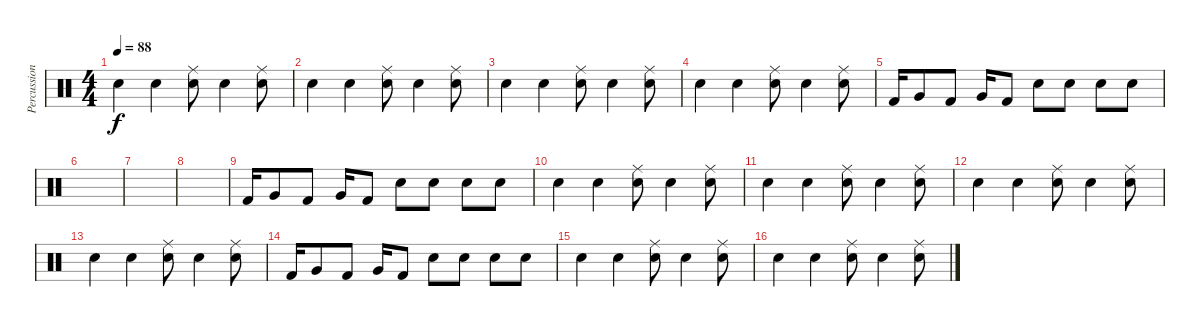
\track ("Percussions" "Percussion") {instrument percussion}
\staff {score}
\articulation defaults
\ts (4 4)
\tempo 88
\clef neutral
\ks c "Electric Snare (hit)".4{dy f} "Electric Snare (hit)".4
("Electric Snare (hit)" "Ride (middle)").8 "Electric Snare (hit)".4 ("Electric Snare (hit)" "Ride (middle)").8 |
"Electric Snare (hit)".4 "Electric Snare (hit)".4 ("Electric Snare (hit)" "Ride (middle)").8 "Electric Snare (hit)".4 ("Electric Snare (hit)" "Ride (middle)").8 |
"Electric Snare (hit)".4 "Electric Snare (hit)".4 ("Electric Snare (hit)" "Ride (middle)").8 "Electric Snare (hit)".4 ("Electric Snare (hit)" "Ride (middle)").8 |
"Electric Snare (hit)".4 "Electric Snare (hit)".4 ("Electric Snare (hit)" "Ride (middle)").8 "Electric Snare (hit)".4 ("Electric Snare (hit)" "Ride (middle)").8 |
"Kick (hit) 2".16 "Very Low Tom (hit)".8 "Kick (hit) 2".8 "Very Low Tom (hit)".16 "Kick (hit) 2".8 "Electric Snare (hit)".8 "Electric Snare (hit)".8 "Electric Snare (hit)".8 "Electric Snare (hit)".8 |
|
|
|
"Kick (hit) 2".16 "Very Low Tom (hit)".8 "Kick (hit) 2".8 "Very Low Tom (hit)".16 "Kick (hit) 2".8 "Electric Snare (hit)".8 "Electric Snare (hit)".8 "Electric Snare (hit)".8 "Electric Snare (hit)".8 |
"Electric Snare (hit)".4 "Electric Snare (hit)".4 ("Electric Snare (hit)" "Ride (middle)").8 "Electric Snare (hit)".4 ("Electric Snare (hit)" "Ride (middle)").8 |
"Electric Snare (hit)".4 "Electric Snare (hit)".4 ("Electric Snare (hit)" "Ride (middle)").8 "Electric Snare (hit)".4 ("Electric Snare (hit)" "Ride (middle)").8 |
"Electric Snare (hit)".4 "Electric Snare (hit)".4 ("Electric Snare (hit)" "Ride (middle)").8 "Electric Snare (hit)".4 ("Electric Snare (hit)" "Ride (middle)").8 |
"Electric Snare (hit)".4 "Electric Snare (hit)".4 ("Electric Snare (hit)" "Ride (middle)").8 "Electric Snare (hit)".4 ("Electric Snare (hit)" "Ride (middle)").8 |
"Kick (hit) 2".16 "Very Low Tom (hit)".8 "Kick (hit) 2".8 "Very Low Tom (hit)".16 "Kick (hit) 2".8 "Electric Snare (hit)".8 "Electric Snare (hit)".8 "Electric Snare (hit)".8 "Electric Snare (hit)".8 |
"Electric Snare (hit)".4 "Electric Snare (hit)".4 ("Electric Snare (hit)" "Ride (middle)").8 "Electric Snare (hit)".4 ("Electric Snare (hit)" "Ride (middle)").8 |
"Electric Snare (hit)".4 "Electric Snare (hit)".4 ("Electric Snare (hit)" "Ride (middle)").8 "Electric Snare (hit)".4 ("Electric Snare (hit)" "Ride (middle)").8
